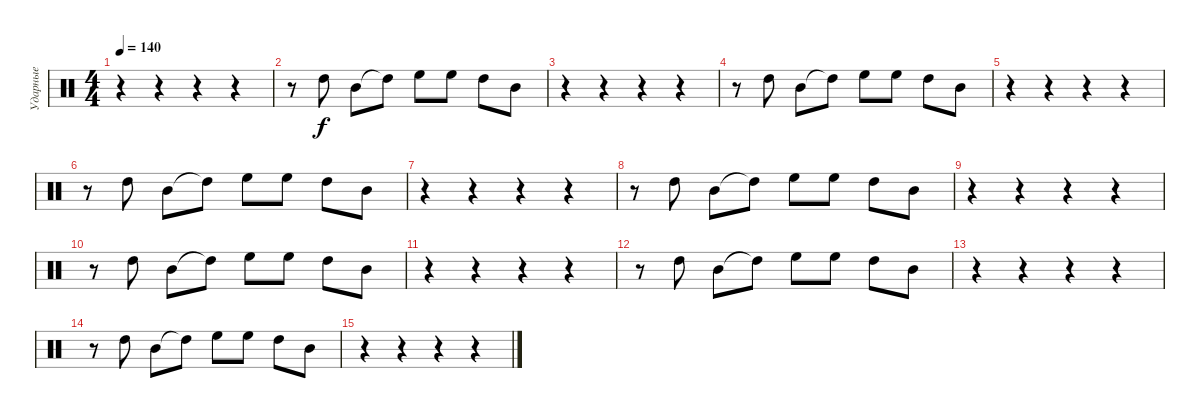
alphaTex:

\track ("Ударные" "Ударные") {instrument percussion}
\staff {score}
\articulation defaults
\ts (4 4)
\tempo 140
\clef neutral
\ks c
r.4{dy f} r.4 r.4 r.4 |
r.8 "High Tom (hit)".8 "Mid Tom (hit)".8 "High Tom (hit)"{t}.8 "High Floor Tom (hit)".8 "High Floor Tom (hit)".8 "High Tom (hit)".8 "Mid Tom (hit)".8 |
r.4 r.4 r.4 r.4 |
r.8 "High Tom (hit)".8 "Mid Tom (hit)".8 "High Tom (hit)"{t}.8 "High Floor Tom (hit)".8 "High Floor Tom (hit)".8 "High Tom (hit)".8 "Mid Tom (hit)".8 |
r.4 r.4 r.4 r.4 |
r.8 "High Tom (hit)".8 "Mid Tom (hit)".8 "High Tom (hit)"{t}.8 "High Floor Tom (hit)".8 "High Floor Tom (hit)".8 "High Tom (hit)".8 "Mid Tom (hit)".8 |
r.4 r.4 r.4 r.4 |
r.8 "High Tom (hit)".8 "Mid Tom (hit)".8 "High Tom (hit)"{t}.8 "High Floor Tom (hit)".8 "High Floor Tom (hit)".8 "High Tom (hit)".8 "Mid Tom (hit)".8 |
r.4 r.4 r.4 r.4 |
r.8 "High Tom (hit)".8 "Mid Tom (hit)".8 "High Tom (hit)"{t}.8 "High Floor Tom (hit)".8 "High Floor Tom (hit)".8 "High Tom (hit)".8 "Mid Tom (hit)".8 |
r.4 r.4 r.4 r.4 |
r.8 "High Tom (hit)".8 "Mid Tom (hit)".8 "High Tom (hit)"{t}.8 "High Floor Tom (hit)".8 "High Floor Tom (hit)".8 "High Tom (hit)".8 "Mid Tom (hit)".8 |
r.4 r.4 r.4 r.4 |
r.8 "High Tom (hit)".8 "Mid Tom (hit)".8 "High Tom (hit)"{t}.8 "High Floor Tom (hit)".8 "High Floor Tom (hit)".8 "High Tom (hit)".8 "Mid Tom (hit)".8 |
r.4 r.4 r.4 r.4
